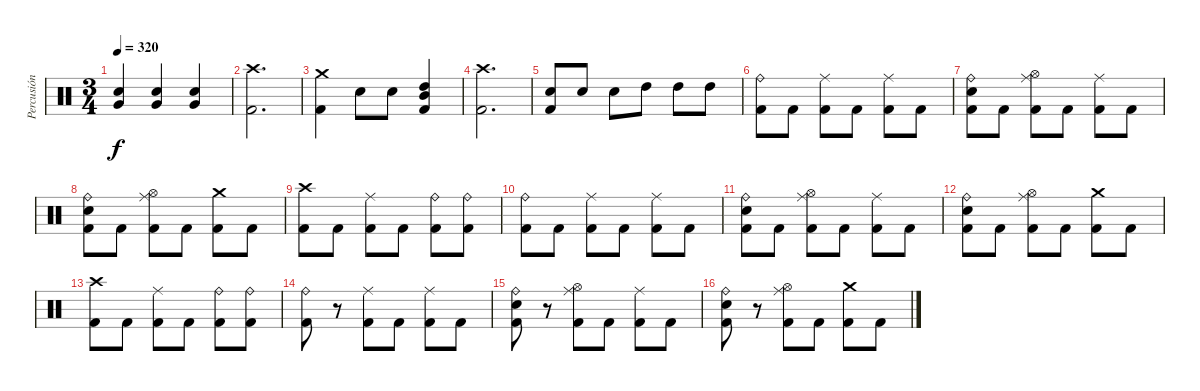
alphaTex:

\track ("Percusión" "Percusión") {instrument percussion}
\staff {score}
\articulation defaults
\ts (3 4)
\tempo 320
\clef neutral
\ks c
("Snare (hit) 2" "Very Low Tom (hit)").4{dy f} ("Snare (hit) 2" "Very Low Tom (hit)").4 ("Snare (hit) 2" "Very Low Tom (hit)").4 |
("Crash high (hit)" "Kick (hit) 2").2{d} |
("Crash medium (hit)" "Kick (hit) 2").4 "Snare (hit) 2".8 "Snare (hit) 2".8 ("Mid Tom (hit)" "High Tom (hit)" "Kick (hit) 2").4 |
("Crash high (hit)" "Kick (hit) 2").2{d} |
("Snare (hit) 2" "Kick (hit) 2").8 "Snare (hit) 2".8 "Snare (hit) 2".8 "High Tom (hit)".8 "High Tom (hit)".8 "High Tom (hit)".8 |
("Ride (bell)" "Kick (hit) 2").8 "Kick (hit) 2".8 ("Ride (middle)" "Kick (hit) 2").8 "Kick (hit) 2".8 ("Ride (middle)" "Kick (hit) 2").8 "Kick (hit) 2".8 |
("Ride (bell)" "Snare (hit) 2" "Kick (hit) 2").8 "Kick (hit) 2".8 ("Ride (middle)" "Hi-Hat (open)" "Kick (hit) 2").8 "Kick (hit) 2".8 ("Ride (middle)" "Kick (hit) 2").8 "Kick (hit) 2".8 |
("Ride (bell)" "Snare (hit) 2" "Kick (hit) 2").8 "Kick (hit) 2".8 ("Ride (middle)" "Hi-Hat (open)" "Kick (hit) 2").8 "Kick (hit) 2".8 ("Crash medium (hit)" "Kick (hit) 2").8 "Kick (hit) 2".8 |
("Crash high (hit)" "Kick (hit) 2").8 "Kick (hit) 2".8 ("Ride (middle)" "Kick (hit) 2").8 "Kick (hit) 2".8 ("Ride (bell)" "Kick (hit) 2").8 ("Ride (bell)" "Kick (hit) 2").8 |
("Ride (bell)" "Kick (hit) 2").8 "Kick (hit) 2".8 ("Ride (middle)" "Kick (hit) 2").8 "Kick (hit) 2".8 ("Ride (middle)" "Kick (hit) 2").8 "Kick (hit) 2".8 |
("Ride (bell)" "Snare (hit) 2" "Kick (hit) 2").8 "Kick (hit) 2".8 ("Ride (middle)" "Hi-Hat (open)" "Kick (hit) 2").8 "Kick (hit) 2".8 ("Ride (middle)" "Kick (hit) 2").8 "Kick (hit) 2".8 |
("Ride (bell)" "Snare (hit) 2" "Kick (hit) 2").8 "Kick (hit) 2".8 ("Ride (middle)" "Hi-Hat (open)" "Kick (hit) 2").8 "Kick (hit) 2".8 ("Crash medium (hit)" "Kick (hit) 2").8 "Kick (hit) 2".8 |
("Crash high (hit)" "Kick (hit) 2").8 "Kick (hit) 2".8 ("Ride (middle)" "Kick (hit) 2").8 "Kick (hit) 2".8 ("Ride (bell)" "Kick (hit) 2").8 ("Ride (bell)" "Kick (hit) 2").8 |
("Ride (bell)" "Kick (hit) 2").8 r.8 ("Ride (middle)" "Kick (hit) 2").8 "Kick (hit) 2".8 ("Ride (middle)" "Kick (hit) 2").8 "Kick (hit) 2".8 |
("Ride (bell)" "Snare (hit) 2" "Kick (hit) 2").8 r.8 ("Ride (middle)" "Hi-Hat (open)" "Kick (hit) 2").8 "Kick (hit) 2".8 ("Ride (middle)" "Kick (hit) 2").8 "Kick (hit) 2".8 |
("Ride (bell)" "Snare (hit) 2" "Kick (hit) 2").8 r.8 ("Ride (middle)" "Hi-Hat (open)" "Kick (hit) 2").8 "Kick (hit) 2".8 ("Crash medium (hit)" "Kick (hit) 2").8 "Kick (hit) 2".8
